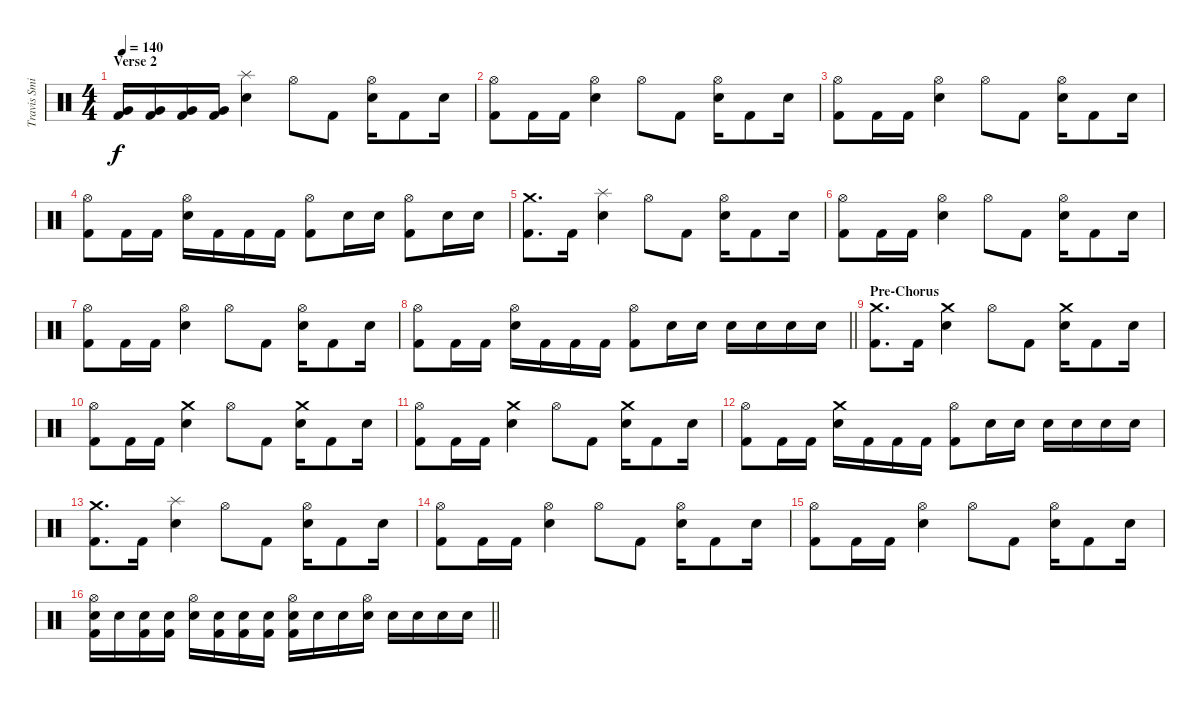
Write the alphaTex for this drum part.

\track ("Travis Smith" "Travis Smi") {instrument percussion}
\staff {score}
\articulation defaults
\ts (4 4)
\section ("" "Verse 2")
\tempo 140
\clef neutral
\ks c
("Very Low Tom (hit)" "Kick (hit) 2").16{dy f} ("Very Low Tom (hit)" "Kick (hit) 2").16 ("Very Low Tom (hit)" "Kick (hit) 2").16 ("Very Low Tom (hit)" "Kick (hit) 2").16 ("Splash (hit)" "Electric Snare (hit)").4 "Hi-Hat (open)".8 "Kick (hit) 2".8 ("Hi-Hat (open)" "Electric Snare (hit)").16 "Kick (hit) 2".8 "Electric Snare (hit)".16 |
("Hi-Hat (open)" "Kick (hit) 2").8 "Kick (hit) 2".16 "Kick (hit) 2".16 ("Hi-Hat (open)" "Electric Snare (hit)").4 "Hi-Hat (open)".8 "Kick (hit) 2".8 ("Hi-Hat (open)" "Electric Snare (hit)").16 "Kick (hit) 2".8 "Electric Snare (hit)".16 |
("Hi-Hat (open)" "Kick (hit) 2").8 "Kick (hit) 2".16 "Kick (hit) 2".16 ("Hi-Hat (open)" "Electric Snare (hit)").4 "Hi-Hat (open)".8 "Kick (hit) 2".8 ("Hi-Hat (open)" "Electric Snare (hit)").16 "Kick (hit) 2".8 "Electric Snare (hit)".16 |
("Hi-Hat (open)" "Kick (hit) 2").8 "Kick (hit) 2".16 "Kick (hit) 2".16 ("Hi-Hat (open)" "Electric Snare (hit)").16 "Kick (hit) 2".16 "Kick (hit) 2".16 "Kick (hit) 2".16 ("Hi-Hat (open)" "Kick (hit) 2").8 "Electric Snare (hit)".16 "Electric Snare (hit)".16 ("Hi-Hat (open)" "Kick (hit) 2").8 "Electric Snare (hit)".16 "Electric Snare (hit)".16 |
("Crash medium (hit)" "Kick (hit) 2").8{d} "Kick (hit) 2".16 ("Splash (hit)" "Electric Snare (hit)").4 "Hi-Hat (open)".8 "Kick (hit) 2".8 ("Hi-Hat (open)" "Electric Snare (hit)").16 "Kick (hit) 2".8 "Electric Snare (hit)".16 |
("Hi-Hat (open)" "Kick (hit) 2").8 "Kick (hit) 2".16 "Kick (hit) 2".16 ("Hi-Hat (open)" "Electric Snare (hit)").4 "Hi-Hat (open)".8 "Kick (hit) 2".8 ("Hi-Hat (open)" "Electric Snare (hit)").16 "Kick (hit) 2".8 "Electric Snare (hit)".16 |
("Hi-Hat (open)" "Kick (hit) 2").8 "Kick (hit) 2".16 "Kick (hit) 2".16 ("Hi-Hat (open)" "Electric Snare (hit)").4 "Hi-Hat (open)".8 "Kick (hit) 2".8 ("Hi-Hat (open)" "Electric Snare (hit)").16 "Kick (hit) 2".8 "Electric Snare (hit)".16 |
\barLineRight lightlight
("Hi-Hat (open)" "Kick (hit) 2").8 "Kick (hit) 2".16 "Kick (hit) 2".16 ("Hi-Hat (open)" "Electric Snare (hit)").16 "Kick (hit) 2".16 "Kick (hit) 2".16 "Kick (hit) 2".16 ("Hi-Hat (open)" "Kick (hit) 2").8 "Electric Snare (hit)".16 "Electric Snare (hit)".16 "Electric Snare (hit)".16 "Electric Snare (hit)".16 "Electric Snare (hit)".16 "Electric Snare (hit)".16 |
\section ("" "Pre-Chorus")
("Crash medium (hit)" "Kick (hit) 2").8{d} "Kick (hit) 2".16 ("Crash medium (hit)" "Electric Snare (hit)").4 "Hi-Hat (open)".8 "Kick (hit) 2".8 ("Crash medium (hit)" "Electric Snare (hit)").16 "Kick (hit) 2".8 "Electric Snare (hit)".16 |
("Hi-Hat (open)" "Kick (hit) 2").8 "Kick (hit) 2".16 "Kick (hit) 2".16 ("Crash medium (hit)" "Electric Snare (hit)").4 "Hi-Hat (open)".8 "Kick (hit) 2".8 ("Crash medium (hit)" "Electric Snare (hit)").16 "Kick (hit) 2".8 "Electric Snare (hit)".16 |
("Hi-Hat (open)" "Kick (hit) 2").8 "Kick (hit) 2".16 "Kick (hit) 2".16 ("Crash medium (hit)" "Electric Snare (hit)").4 "Hi-Hat (open)".8 "Kick (hit) 2".8 ("Crash medium (hit)" "Electric Snare (hit)").16 "Kick (hit) 2".8 "Electric Snare (hit)".16 |
("Hi-Hat (open)" "Kick (hit) 2").8 "Kick (hit) 2".16 "Kick (hit) 2".16 ("Crash medium (hit)" "Electric Snare (hit)").16 "Kick (hit) 2".16 "Kick (hit) 2".16 "Kick (hit) 2".16 ("Hi-Hat (open)" "Kick (hit) 2").8 "Electric Snare (hit)".16 "Electric Snare (hit)".16 "Electric Snare (hit)".16 "Electric Snare (hit)".16 "Electric Snare (hit)".16 "Electric Snare (hit)".16 |
("Crash medium (hit)" "Kick (hit) 2").8{d} "Kick (hit) 2".16 ("Splash (hit)" "Electric Snare (hit)").4 "Hi-Hat (open)".8 "Kick (hit) 2".8 ("Hi-Hat (open)" "Electric Snare (hit)").16 "Kick (hit) 2".8 "Electric Snare (hit)".16 |
("Hi-Hat (open)" "Kick (hit) 2").8 "Kick (hit) 2".16 "Kick (hit) 2".16 ("Hi-Hat (open)" "Electric Snare (hit)").4 "Hi-Hat (open)".8 "Kick (hit) 2".8 ("Hi-Hat (open)" "Electric Snare (hit)").16 "Kick (hit) 2".8 "Electric Snare (hit)".16 |
("Hi-Hat (open)" "Kick (hit) 2").8 "Kick (hit) 2".16 "Kick (hit) 2".16 ("Hi-Hat (open)" "Electric Snare (hit)").4 "Hi-Hat (open)".8 "Kick (hit) 2".8 ("Hi-Hat (open)" "Electric Snare (hit)").16 "Kick (hit) 2".8 "Electric Snare (hit)".16 |
\barLineRight lightlight
("Hi-Hat (open)" "Electric Snare (hit)" "Kick (hit) 2").16 "Electric Snare (hit)".16 ("Electric Snare (hit)" "Kick (hit) 2").16 ("Electric Snare (hit)" "Kick (hit) 2").16 ("Hi-Hat (open)" "Electric Snare (hit)").16 ("Electric Snare (hit)" "Kick (hit) 2").16 ("Electric Snare (hit)" "Kick (hit) 2").16 ("Electric Snare (hit)" "Kick (hit) 2").16 ("Hi-Hat (open)" "Electric Snare (hit)" "Kick (hit) 2").16 "Electric Snare (hit)".16 "Electric Snare (hit)".16 ("Hi-Hat (open)" "Electric Snare (hit)").16 "Electric Snare (hit)".16 "Electric Snare (hit)".16 "Electric Snare (hit)".16 "Electric Snare (hit)".16
